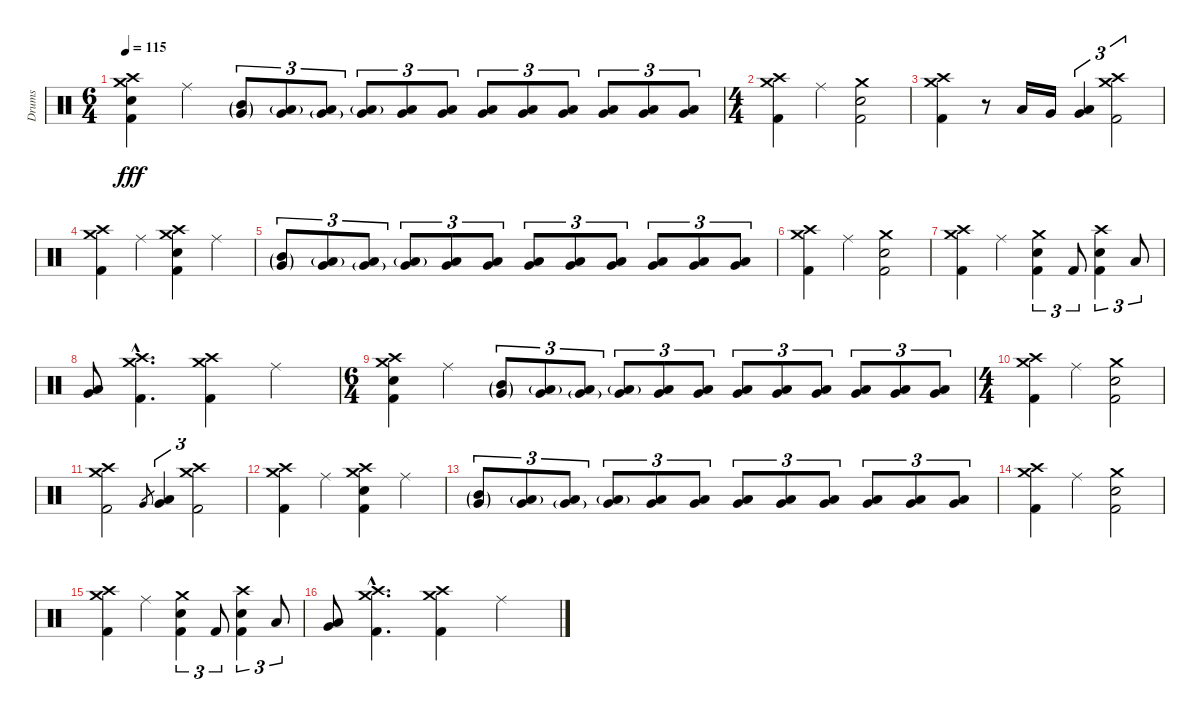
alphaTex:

\track ("Drums" "Drums") {instrument percussion}
\staff {score}
\articulation defaults
\ts (6 4)
\tempo 115
\clef neutral
\ks c
("Crash high (hit)" "Crash medium (hit)" "Electric Snare (hit)" "Kick (hit) 2").4{dy fff} "Ride (middle)".4 ("Mid Tom (hit)"{g} "Very Low Tom (hit)"{g}).8{tu (3 2)} ("Low Tom (hit)"{g} "Very Low Tom (hit)").8{tu (3 2)} ("Low Tom (hit)" "Very Low Tom (hit)"{g}).8{tu (3 2)} ("Low Tom (hit)"{g} "Very Low Tom (hit)").8{tu (3 2)} ("Low Tom (hit)" "Very Low Tom (hit)").8{tu (3 2)} ("Low Tom (hit)" "Very Low Tom (hit)").8{tu (3 2)} ("Low Tom (hit)" "Very Low Tom (hit)").8{tu (3 2)} ("Low Tom (hit)" "Very Low Tom (hit)").8{tu (3 2)} ("Low Tom (hit)" "Very Low Tom (hit)").8{tu (3 2)} ("Low Tom (hit)" "Very Low Tom (hit)").8{tu (3 2)} ("Low Tom (hit)" "Very Low Tom (hit)").8{tu (3 2)} ("Low Tom (hit)" "Very Low Tom (hit)").8{tu (3 2)} |
\ts (4 4)
("Crash high (hit)" "Crash medium (hit)" "Kick (hit) 2").4 "Ride (middle)".4 ("Crash medium (hit)" "Electric Snare (hit)" "Kick (hit) 2").2 |
("Crash high (hit)" "Crash medium (hit)" "Kick (hit) 2").4 r.8 "Low Tom (hit)".16 "Very Low Tom (hit)".16 ("Very Low Tom (hit)" "Low Tom (hit)").4{tu (3 2)} ("Crash high (hit)" "Crash medium (hit)" "Kick (hit) 2").2{tu (3 2)} |
("Crash high (hit)" "Crash medium (hit)" "Kick (hit) 2").4 "Ride (middle)".4 ("Crash high (hit)" "Crash medium (hit)" "Electric Snare (hit)" "Kick (hit) 2").4 "Ride (middle)".4 |
("Mid Tom (hit)"{g} "Very Low Tom (hit)"{g}).8{tu (3 2)} ("Low Tom (hit)"{g} "Very Low Tom (hit)").8{tu (3 2)} ("Low Tom (hit)" "Very Low Tom (hit)"{g}).8{tu (3 2)} ("Low Tom (hit)"{g} "Very Low Tom (hit)").8{tu (3 2)} ("Low Tom (hit)" "Very Low Tom (hit)").8{tu (3 2)} ("Low Tom (hit)" "Very Low Tom (hit)").8{tu (3 2)} ("Low Tom (hit)" "Very Low Tom (hit)").8{tu (3 2)} ("Low Tom (hit)" "Very Low Tom (hit)").8{tu (3 2)} ("Low Tom (hit)" "Very Low Tom (hit)").8{tu (3 2)} ("Low Tom (hit)" "Very Low Tom (hit)").8{tu (3 2)} ("Low Tom (hit)" "Very Low Tom (hit)").8{tu (3 2)} ("Low Tom (hit)" "Very Low Tom (hit)").8{tu (3 2)} |
("Crash high (hit)" "Crash medium (hit)" "Kick (hit) 2").4 "Ride (middle)".4 ("Crash medium (hit)" "Electric Snare (hit)" "Kick (hit) 2").2 |
("Crash high (hit)" "Crash medium (hit)" "Kick (hit) 2").4 "Ride (middle)".4 ("Crash medium (hit)" "Electric Snare (hit)" "Kick (hit) 2").4{tu (3 2)} "Kick (hit) 2".8{tu (3 2)} ("Crash high (hit)" "Electric Snare (hit)" "Kick (hit) 2").4{tu (3 2)} "Low Tom (hit)".8{tu (3 2)} |
("Low Floor Tom (hit)" "Very Low Tom (hit)").8 ("Crash high (hit)"{hac} "Crash medium (hit)"{hac} "Kick (hit) 2"{hac}).4{d} ("Crash high (hit)" "Crash medium (hit)" "Kick (hit) 2").4 "Ride (middle)".4 |
\ts (6 4)
("Crash high (hit)" "Crash medium (hit)" "Electric Snare (hit)" "Kick (hit) 2").4 "Ride (middle)".4 ("Mid Tom (hit)"{g} "Very Low Tom (hit)"{g}).8{tu (3 2)} ("Low Tom (hit)"{g} "Very Low Tom (hit)").8{tu (3 2)} ("Low Tom (hit)" "Very Low Tom (hit)"{g}).8{tu (3 2)} ("Low Tom (hit)"{g} "Very Low Tom (hit)").8{tu (3 2)} ("Low Tom (hit)" "Very Low Tom (hit)").8{tu (3 2)} ("Low Tom (hit)" "Very Low Tom (hit)").8{tu (3 2)} ("Low Tom (hit)" "Very Low Tom (hit)").8{tu (3 2)} ("Low Tom (hit)" "Very Low Tom (hit)").8{tu (3 2)} ("Low Tom (hit)" "Very Low Tom (hit)").8{tu (3 2)} ("Low Tom (hit)" "Very Low Tom (hit)").8{tu (3 2)} ("Low Tom (hit)" "Very Low Tom (hit)").8{tu (3 2)} ("Low Tom (hit)" "Very Low Tom (hit)").8{tu (3 2)} |
\ts (4 4)
("Crash high (hit)" "Crash medium (hit)" "Kick (hit) 2").4 "Ride (middle)".4 ("Crash medium (hit)" "Electric Snare (hit)" "Kick (hit) 2").2 |
("Crash high (hit)" "Crash medium (hit)" "Kick (hit) 2").2 "Very Low Tom (hit)".8{gr} ("Very Low Tom (hit)" "Low Tom (hit)").4{tu (3 2)} ("Crash high (hit)" "Crash medium (hit)" "Kick (hit) 2").2{tu (3 2)} |
("Crash high (hit)" "Crash medium (hit)" "Kick (hit) 2").4 "Ride (middle)".4 ("Crash high (hit)" "Crash medium (hit)" "Electric Snare (hit)" "Kick (hit) 2").4 "Ride (middle)".4 |
("Mid Tom (hit)"{g} "Very Low Tom (hit)"{g}).8{tu (3 2)} ("Low Tom (hit)"{g} "Very Low Tom (hit)").8{tu (3 2)} ("Low Tom (hit)" "Very Low Tom (hit)"{g}).8{tu (3 2)} ("Low Tom (hit)"{g} "Very Low Tom (hit)").8{tu (3 2)} ("Low Tom (hit)" "Very Low Tom (hit)").8{tu (3 2)} ("Low Tom (hit)" "Very Low Tom (hit)").8{tu (3 2)} ("Low Tom (hit)" "Very Low Tom (hit)").8{tu (3 2)} ("Low Tom (hit)" "Very Low Tom (hit)").8{tu (3 2)} ("Low Tom (hit)" "Very Low Tom (hit)").8{tu (3 2)} ("Low Tom (hit)" "Very Low Tom (hit)").8{tu (3 2)} ("Low Tom (hit)" "Very Low Tom (hit)").8{tu (3 2)} ("Low Tom (hit)" "Very Low Tom (hit)").8{tu (3 2)} |
("Crash high (hit)" "Crash medium (hit)" "Kick (hit) 2").4 "Ride (middle)".4 ("Crash medium (hit)" "Electric Snare (hit)" "Kick (hit) 2").2 |
("Crash high (hit)" "Crash medium (hit)" "Kick (hit) 2").4 "Ride (middle)".4 ("Crash medium (hit)" "Electric Snare (hit)" "Kick (hit) 2").4{tu (3 2)} "Kick (hit) 2".8{tu (3 2)} ("Crash high (hit)" "Electric Snare (hit)" "Kick (hit) 2").4{tu (3 2)} "Low Tom (hit)".8{tu (3 2)} |
("Low Floor Tom (hit)" "Very Low Tom (hit)").8 ("Crash high (hit)"{hac} "Crash medium (hit)"{hac} "Kick (hit) 2"{hac}).4{d} ("Crash high (hit)" "Crash medium (hit)" "Kick (hit) 2").4 "Ride (middle)".4
